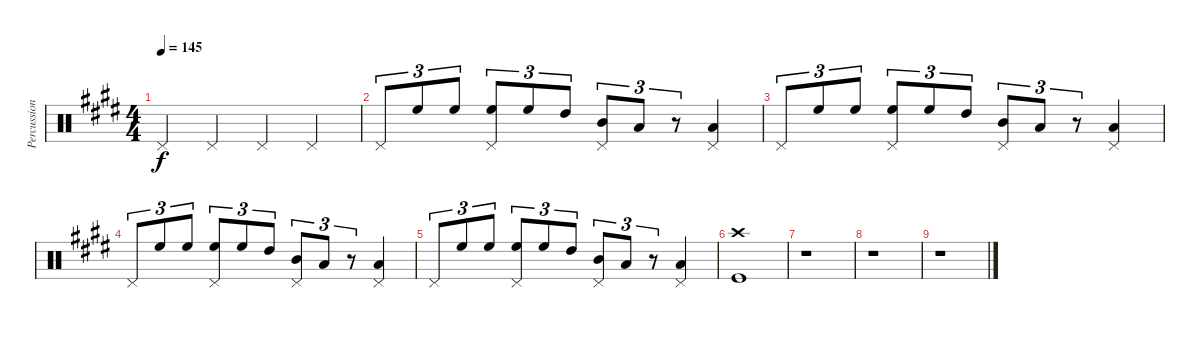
\track ("Percussions" "Percussion") {solo instrument percussion}
\staff {score}
\articulation defaults
\ts (4 4)
\tempo 145
\clef neutral
\ks e "Pedal Hi-Hat (hit)".4{dy f} "Pedal Hi-Hat (hit)".4 "Pedal Hi-Hat (hit)".4 "Pedal Hi-Hat (hit)".4
|
"Pedal Hi-Hat (hit)".8{tu (3 2)} "High Floor Tom (hit)".8{tu (3 2)} "High Floor Tom (hit)".8{tu (3 2)} ("High Floor Tom (hit)" "Pedal Hi-Hat (hit)").8{tu (3 2)} "High Floor Tom (hit)".8{tu (3 2)} "High Tom (hit)".8{tu (3 2)} ("Mid Tom (hit)" "Pedal Hi-Hat (hit)").8{tu (3 2)} "Low Tom (hit)".8{tu (3 2)} r.8{tu (3 2)} ("Low Tom (hit)" "Pedal Hi-Hat (hit)").4 |
"Pedal Hi-Hat (hit)".8{tu (3 2)} "High Floor Tom (hit)".8{tu (3 2)} "High Floor Tom (hit)".8{tu (3 2)} ("High Floor Tom (hit)" "Pedal Hi-Hat (hit)").8{tu (3 2)} "High Floor Tom (hit)".8{tu (3 2)} "High Tom (hit)".8{tu (3 2)} ("Mid Tom (hit)" "Pedal Hi-Hat (hit)").8{tu (3 2)} "Low Tom (hit)".8{tu (3 2)} r.8{tu (3 2)} ("Low Tom (hit)" "Pedal Hi-Hat (hit)").4 |
"Pedal Hi-Hat (hit)".8{tu (3 2)} "High Floor Tom (hit)".8{tu (3 2)} "High Floor Tom (hit)".8{tu (3 2)} ("High Floor Tom (hit)" "Pedal Hi-Hat (hit)").8{tu (3 2)} "High Floor Tom (hit)".8{tu (3 2)} "High Tom (hit)".8{tu (3 2)} ("Mid Tom (hit)" "Pedal Hi-Hat (hit)").8{tu (3 2)} "Low Tom (hit)".8{tu (3 2)} r.8{tu (3 2)} ("Low Tom (hit)" "Pedal Hi-Hat (hit)").4 |
"Pedal Hi-Hat (hit)".8{tu (3 2)} "High Floor Tom (hit)".8{tu (3 2)} "High Floor Tom (hit)".8{tu (3 2)} ("High Floor Tom (hit)" "Pedal Hi-Hat (hit)").8{tu (3 2)} "High Floor Tom (hit)".8{tu (3 2)} "High Tom (hit)".8{tu (3 2)} ("Mid Tom (hit)" "Pedal Hi-Hat (hit)").8{tu (3 2)} "Low Tom (hit)".8{tu (3 2)} r.8{tu (3 2)} ("Low Tom (hit)" "Pedal Hi-Hat (hit)").4 |
("Crash high (hit)" "Kick (hit)").1 |
r.1 |
r.1 |
r.1
